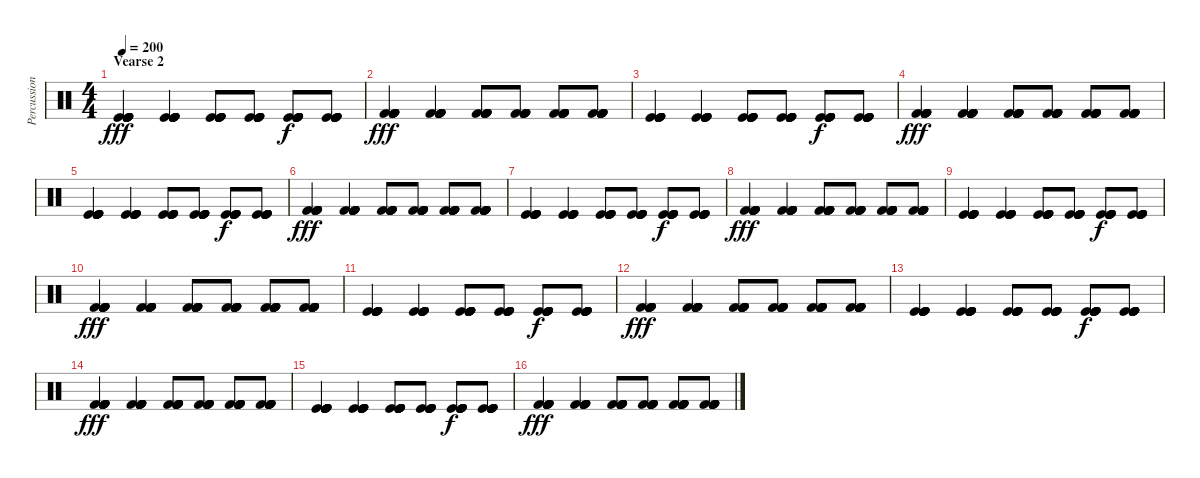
\track ("Percussion" "Percussion") {instrument percussion}
\staff {score}
\articulation defaults
\ts (4 4)
\section ("" "Vearse 2")
\tempo 200
\clef neutral
\ks c
("Kick (hit)" "Kick (hit)" "Kick (hit)" "Kick (hit)" "Kick (hit)" "Kick (hit)").4{dy fff} ("Kick (hit)" "Kick (hit)" "Kick (hit)" "Kick (hit)" "Kick (hit)" "Kick (hit)").4 ("Kick (hit)" "Kick (hit)" "Kick (hit)" "Kick (hit)" "Kick (hit)" "Kick (hit)").8 ("Kick (hit)" "Kick (hit)" "Kick (hit)" "Kick (hit)" "Kick (hit)" "Kick (hit)").8 ("Kick (hit)" "Kick (hit)" "Kick (hit)" "Kick (hit)" "Kick (hit)" "Kick (hit)").8{dy f} ("Kick (hit)" "Kick (hit)" "Kick (hit)" "Kick (hit)" "Kick (hit)" "Kick (hit)").8 |
("Kick (hit) 2" "Kick (hit) 2" "Kick (hit) 2" "Kick (hit) 2" "Kick (hit) 2" "Kick (hit) 2").4{dy fff} ("Kick (hit) 2" "Kick (hit) 2" "Kick (hit) 2" "Kick (hit) 2" "Kick (hit) 2" "Kick (hit) 2").4 ("Kick (hit) 2" "Kick (hit) 2" "Kick (hit) 2" "Kick (hit) 2" "Kick (hit) 2" "Kick (hit) 2").8 ("Kick (hit) 2" "Kick (hit) 2" "Kick (hit) 2" "Kick (hit) 2" "Kick (hit) 2" "Kick (hit) 2").8 ("Kick (hit) 2" "Kick (hit) 2" "Kick (hit) 2" "Kick (hit) 2" "Kick (hit) 2" "Kick (hit) 2").8 ("Kick (hit) 2" "Kick (hit) 2" "Kick (hit) 2" "Kick (hit) 2" "Kick (hit) 2" "Kick (hit) 2").8 |
("Kick (hit)" "Kick (hit)" "Kick (hit)" "Kick (hit)" "Kick (hit)" "Kick (hit)").4 ("Kick (hit)" "Kick (hit)" "Kick (hit)" "Kick (hit)" "Kick (hit)" "Kick (hit)").4 ("Kick (hit)" "Kick (hit)" "Kick (hit)" "Kick (hit)" "Kick (hit)" "Kick (hit)").8 ("Kick (hit)" "Kick (hit)" "Kick (hit)" "Kick (hit)" "Kick (hit)" "Kick (hit)").8 ("Kick (hit)" "Kick (hit)" "Kick (hit)" "Kick (hit)" "Kick (hit)" "Kick (hit)").8{dy f} ("Kick (hit)" "Kick (hit)" "Kick (hit)" "Kick (hit)" "Kick (hit)" "Kick (hit)").8 |
("Kick (hit) 2" "Kick (hit) 2" "Kick (hit) 2" "Kick (hit) 2" "Kick (hit) 2" "Kick (hit) 2").4{dy fff} ("Kick (hit) 2" "Kick (hit) 2" "Kick (hit) 2" "Kick (hit) 2" "Kick (hit) 2" "Kick (hit) 2").4 ("Kick (hit) 2" "Kick (hit) 2" "Kick (hit) 2" "Kick (hit) 2" "Kick (hit) 2" "Kick (hit) 2").8 ("Kick (hit) 2" "Kick (hit) 2" "Kick (hit) 2" "Kick (hit) 2" "Kick (hit) 2" "Kick (hit) 2").8 ("Kick (hit) 2" "Kick (hit) 2" "Kick (hit) 2" "Kick (hit) 2" "Kick (hit) 2" "Kick (hit) 2").8 ("Kick (hit) 2" "Kick (hit) 2" "Kick (hit) 2" "Kick (hit) 2" "Kick (hit) 2" "Kick (hit) 2").8 |
("Kick (hit)" "Kick (hit)" "Kick (hit)" "Kick (hit)" "Kick (hit)" "Kick (hit)").4 ("Kick (hit)" "Kick (hit)" "Kick (hit)" "Kick (hit)" "Kick (hit)" "Kick (hit)").4 ("Kick (hit)" "Kick (hit)" "Kick (hit)" "Kick (hit)" "Kick (hit)" "Kick (hit)").8 ("Kick (hit)" "Kick (hit)" "Kick (hit)" "Kick (hit)" "Kick (hit)" "Kick (hit)").8 ("Kick (hit)" "Kick (hit)" "Kick (hit)" "Kick (hit)" "Kick (hit)" "Kick (hit)").8{dy f} ("Kick (hit)" "Kick (hit)" "Kick (hit)" "Kick (hit)" "Kick (hit)" "Kick (hit)").8 |
("Kick (hit) 2" "Kick (hit) 2" "Kick (hit) 2" "Kick (hit) 2" "Kick (hit) 2" "Kick (hit) 2").4{dy fff} ("Kick (hit) 2" "Kick (hit) 2" "Kick (hit) 2" "Kick (hit) 2" "Kick (hit) 2" "Kick (hit) 2").4 ("Kick (hit) 2" "Kick (hit) 2" "Kick (hit) 2" "Kick (hit) 2" "Kick (hit) 2" "Kick (hit) 2").8 ("Kick (hit) 2" "Kick (hit) 2" "Kick (hit) 2" "Kick (hit) 2" "Kick (hit) 2" "Kick (hit) 2").8 ("Kick (hit) 2" "Kick (hit) 2" "Kick (hit) 2" "Kick (hit) 2" "Kick (hit) 2" "Kick (hit) 2").8 ("Kick (hit) 2" "Kick (hit) 2" "Kick (hit) 2" "Kick (hit) 2" "Kick (hit) 2" "Kick (hit) 2").8 |
("Kick (hit)" "Kick (hit)" "Kick (hit)" "Kick (hit)" "Kick (hit)" "Kick (hit)").4 ("Kick (hit)" "Kick (hit)" "Kick (hit)" "Kick (hit)" "Kick (hit)" "Kick (hit)").4 ("Kick (hit)" "Kick (hit)" "Kick (hit)" "Kick (hit)" "Kick (hit)" "Kick (hit)").8 ("Kick (hit)" "Kick (hit)" "Kick (hit)" "Kick (hit)" "Kick (hit)" "Kick (hit)").8 ("Kick (hit)" "Kick (hit)" "Kick (hit)" "Kick (hit)" "Kick (hit)" "Kick (hit)").8{dy f} ("Kick (hit)" "Kick (hit)" "Kick (hit)" "Kick (hit)" "Kick (hit)" "Kick (hit)").8 |
("Kick (hit) 2" "Kick (hit) 2" "Kick (hit) 2" "Kick (hit) 2" "Kick (hit) 2" "Kick (hit) 2").4{dy fff} ("Kick (hit) 2" "Kick (hit) 2" "Kick (hit) 2" "Kick (hit) 2" "Kick (hit) 2" "Kick (hit) 2").4 ("Kick (hit) 2" "Kick (hit) 2" "Kick (hit) 2" "Kick (hit) 2" "Kick (hit) 2" "Kick (hit) 2").8 ("Kick (hit) 2" "Kick (hit) 2" "Kick (hit) 2" "Kick (hit) 2" "Kick (hit) 2" "Kick (hit) 2").8 ("Kick (hit) 2" "Kick (hit) 2" "Kick (hit) 2" "Kick (hit) 2" "Kick (hit) 2" "Kick (hit) 2").8 ("Kick (hit) 2" "Kick (hit) 2" "Kick (hit) 2" "Kick (hit) 2" "Kick (hit) 2" "Kick (hit) 2").8 |
("Kick (hit)" "Kick (hit)" "Kick (hit)" "Kick (hit)" "Kick (hit)" "Kick (hit)").4 ("Kick (hit)" "Kick (hit)" "Kick (hit)" "Kick (hit)" "Kick (hit)" "Kick (hit)").4 ("Kick (hit)" "Kick (hit)" "Kick (hit)" "Kick (hit)" "Kick (hit)" "Kick (hit)").8 ("Kick (hit)" "Kick (hit)" "Kick (hit)" "Kick (hit)" "Kick (hit)" "Kick (hit)").8 ("Kick (hit)" "Kick (hit)" "Kick (hit)" "Kick (hit)" "Kick (hit)" "Kick (hit)").8{dy f} ("Kick (hit)" "Kick (hit)" "Kick (hit)" "Kick (hit)" "Kick (hit)" "Kick (hit)").8 |
("Kick (hit) 2" "Kick (hit) 2" "Kick (hit) 2" "Kick (hit) 2" "Kick (hit) 2" "Kick (hit) 2").4{dy fff} ("Kick (hit) 2" "Kick (hit) 2" "Kick (hit) 2" "Kick (hit) 2" "Kick (hit) 2" "Kick (hit) 2").4 ("Kick (hit) 2" "Kick (hit) 2" "Kick (hit) 2" "Kick (hit) 2" "Kick (hit) 2" "Kick (hit) 2").8 ("Kick (hit) 2" "Kick (hit) 2" "Kick (hit) 2" "Kick (hit) 2" "Kick (hit) 2" "Kick (hit) 2").8 ("Kick (hit) 2" "Kick (hit) 2" "Kick (hit) 2" "Kick (hit) 2" "Kick (hit) 2" "Kick (hit) 2").8 ("Kick (hit) 2" "Kick (hit) 2" "Kick (hit) 2" "Kick (hit) 2" "Kick (hit) 2" "Kick (hit) 2").8 |
("Kick (hit)" "Kick (hit)" "Kick (hit)" "Kick (hit)" "Kick (hit)" "Kick (hit)").4 ("Kick (hit)" "Kick (hit)" "Kick (hit)" "Kick (hit)" "Kick (hit)" "Kick (hit)").4 ("Kick (hit)" "Kick (hit)" "Kick (hit)" "Kick (hit)" "Kick (hit)" "Kick (hit)").8 ("Kick (hit)" "Kick (hit)" "Kick (hit)" "Kick (hit)" "Kick (hit)" "Kick (hit)").8 ("Kick (hit)" "Kick (hit)" "Kick (hit)" "Kick (hit)" "Kick (hit)" "Kick (hit)").8{dy f} ("Kick (hit)" "Kick (hit)" "Kick (hit)" "Kick (hit)" "Kick (hit)" "Kick (hit)").8 |
("Kick (hit) 2" "Kick (hit) 2" "Kick (hit) 2" "Kick (hit) 2" "Kick (hit) 2" "Kick (hit) 2").4{dy fff} ("Kick (hit) 2" "Kick (hit) 2" "Kick (hit) 2" "Kick (hit) 2" "Kick (hit) 2" "Kick (hit) 2").4 ("Kick (hit) 2" "Kick (hit) 2" "Kick (hit) 2" "Kick (hit) 2" "Kick (hit) 2" "Kick (hit) 2").8 ("Kick (hit) 2" "Kick (hit) 2" "Kick (hit) 2" "Kick (hit) 2" "Kick (hit) 2" "Kick (hit) 2").8 ("Kick (hit) 2" "Kick (hit) 2" "Kick (hit) 2" "Kick (hit) 2" "Kick (hit) 2" "Kick (hit) 2").8 ("Kick (hit) 2" "Kick (hit) 2" "Kick (hit) 2" "Kick (hit) 2" "Kick (hit) 2" "Kick (hit) 2").8 |
("Kick (hit)" "Kick (hit)" "Kick (hit)" "Kick (hit)" "Kick (hit)" "Kick (hit)").4 ("Kick (hit)" "Kick (hit)" "Kick (hit)" "Kick (hit)" "Kick (hit)" "Kick (hit)").4 ("Kick (hit)" "Kick (hit)" "Kick (hit)" "Kick (hit)" "Kick (hit)" "Kick (hit)").8 ("Kick (hit)" "Kick (hit)" "Kick (hit)" "Kick (hit)" "Kick (hit)" "Kick (hit)").8 ("Kick (hit)" "Kick (hit)" "Kick (hit)" "Kick (hit)" "Kick (hit)" "Kick (hit)").8{dy f} ("Kick (hit)" "Kick (hit)" "Kick (hit)" "Kick (hit)" "Kick (hit)" "Kick (hit)").8 |
("Kick (hit) 2" "Kick (hit) 2" "Kick (hit) 2" "Kick (hit) 2" "Kick (hit) 2" "Kick (hit) 2").4{dy fff} ("Kick (hit) 2" "Kick (hit) 2" "Kick (hit) 2" "Kick (hit) 2" "Kick (hit) 2" "Kick (hit) 2").4 ("Kick (hit) 2" "Kick (hit) 2" "Kick (hit) 2" "Kick (hit) 2" "Kick (hit) 2" "Kick (hit) 2").8 ("Kick (hit) 2" "Kick (hit) 2" "Kick (hit) 2" "Kick (hit) 2" "Kick (hit) 2" "Kick (hit) 2").8 ("Kick (hit) 2" "Kick (hit) 2" "Kick (hit) 2" "Kick (hit) 2" "Kick (hit) 2" "Kick (hit) 2").8 ("Kick (hit) 2" "Kick (hit) 2" "Kick (hit) 2" "Kick (hit) 2" "Kick (hit) 2" "Kick (hit) 2").8 |
("Kick (hit)" "Kick (hit)" "Kick (hit)" "Kick (hit)" "Kick (hit)" "Kick (hit)").4 ("Kick (hit)" "Kick (hit)" "Kick (hit)" "Kick (hit)" "Kick (hit)" "Kick (hit)").4 ("Kick (hit)" "Kick (hit)" "Kick (hit)" "Kick (hit)" "Kick (hit)" "Kick (hit)").8 ("Kick (hit)" "Kick (hit)" "Kick (hit)" "Kick (hit)" "Kick (hit)" "Kick (hit)").8 ("Kick (hit)" "Kick (hit)" "Kick (hit)" "Kick (hit)" "Kick (hit)" "Kick (hit)").8{dy f} ("Kick (hit)" "Kick (hit)" "Kick (hit)" "Kick (hit)" "Kick (hit)" "Kick (hit)").8 |
("Kick (hit) 2" "Kick (hit) 2" "Kick (hit) 2" "Kick (hit) 2" "Kick (hit) 2" "Kick (hit) 2").4{dy fff} ("Kick (hit) 2" "Kick (hit) 2" "Kick (hit) 2" "Kick (hit) 2" "Kick (hit) 2" "Kick (hit) 2").4 ("Kick (hit) 2" "Kick (hit) 2" "Kick (hit) 2" "Kick (hit) 2" "Kick (hit) 2" "Kick (hit) 2").8 ("Kick (hit) 2" "Kick (hit) 2" "Kick (hit) 2" "Kick (hit) 2" "Kick (hit) 2" "Kick (hit) 2").8 ("Kick (hit) 2" "Kick (hit) 2" "Kick (hit) 2" "Kick (hit) 2" "Kick (hit) 2" "Kick (hit) 2").8 ("Kick (hit) 2" "Kick (hit) 2" "Kick (hit) 2" "Kick (hit) 2" "Kick (hit) 2" "Kick (hit) 2").8
